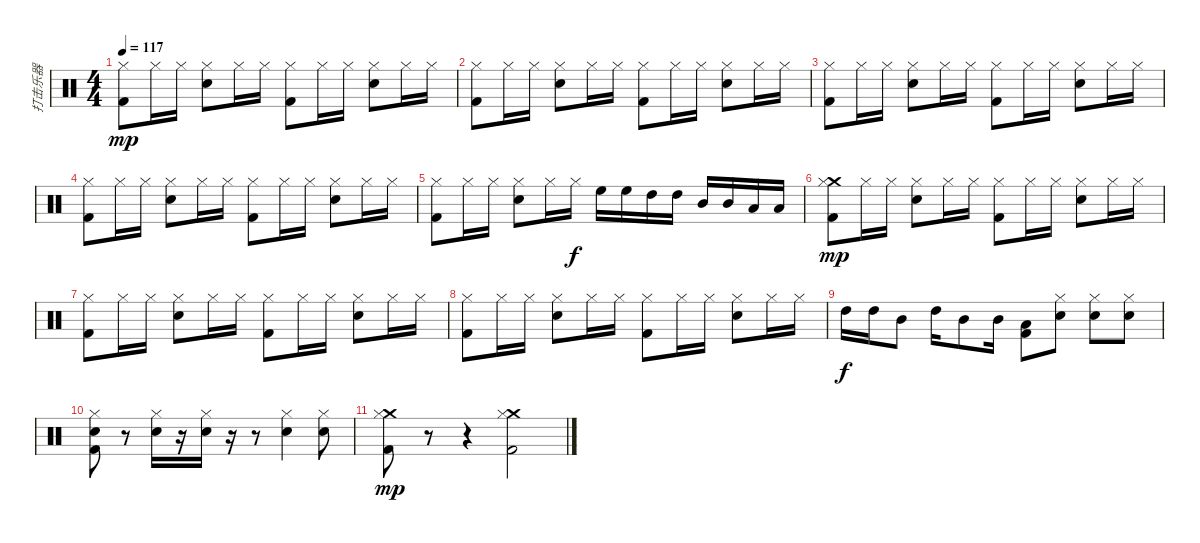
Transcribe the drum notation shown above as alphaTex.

\track ("打击乐器" "打击乐器") {instrument percussion}
\staff {score}
\articulation defaults
\ts (4 4)
\tempo 117
\clef neutral
\ks c
("Hi-Hat (closed)" "Kick (hit) 2").8{dy mp} "Hi-Hat (closed)".16 "Hi-Hat (closed)".16 ("Hi-Hat (closed)" "Snare (hit) 2").8 "Hi-Hat (closed)".16 "Hi-Hat (closed)".16 ("Hi-Hat (closed)" "Kick (hit) 2").8 "Hi-Hat (closed)".16 "Hi-Hat (closed)".16 ("Hi-Hat (closed)" "Snare (hit) 2").8 "Hi-Hat (closed)".16 "Hi-Hat (closed)".16 |
("Hi-Hat (closed)" "Kick (hit) 2").8 "Hi-Hat (closed)".16 "Hi-Hat (closed)".16 ("Hi-Hat (closed)" "Snare (hit) 2").8 "Hi-Hat (closed)".16 "Hi-Hat (closed)".16 ("Hi-Hat (closed)" "Kick (hit) 2").8 "Hi-Hat (closed)".16 "Hi-Hat (closed)".16 ("Hi-Hat (closed)" "Snare (hit) 2").8 "Hi-Hat (closed)".16 "Hi-Hat (closed)".16 |
("Hi-Hat (closed)" "Kick (hit) 2").8 "Hi-Hat (closed)".16 "Hi-Hat (closed)".16 ("Hi-Hat (closed)" "Snare (hit) 2").8 "Hi-Hat (closed)".16 "Hi-Hat (closed)".16 ("Hi-Hat (closed)" "Kick (hit) 2").8 "Hi-Hat (closed)".16 "Hi-Hat (closed)".16 ("Hi-Hat (closed)" "Snare (hit) 2").8 "Hi-Hat (closed)".16 "Hi-Hat (closed)".16 |
("Hi-Hat (closed)" "Kick (hit) 2").8 "Hi-Hat (closed)".16 "Hi-Hat (closed)".16 ("Hi-Hat (closed)" "Snare (hit) 2").8 "Hi-Hat (closed)".16 "Hi-Hat (closed)".16 ("Hi-Hat (closed)" "Kick (hit) 2").8 "Hi-Hat (closed)".16 "Hi-Hat (closed)".16 ("Hi-Hat (closed)" "Snare (hit) 2").8 "Hi-Hat (closed)".16 "Hi-Hat (closed)".16 |
("Hi-Hat (closed)" "Kick (hit) 2").8 "Hi-Hat (closed)".16 "Hi-Hat (closed)".16 ("Hi-Hat (closed)" "Snare (hit) 2").8 "Hi-Hat (closed)".16 "Hi-Hat (closed)".16{dy f} "High Floor Tom (hit)".16 "High Floor Tom (hit)".16 "High Tom (hit)".16 "High Tom (hit)".16 "Mid Tom (hit)".16 "Mid Tom (hit)".16 "Low Tom (hit)".16 "Low Tom (hit)".16 |
("Crash medium (hit)" "Hi-Hat (closed)" "Kick (hit) 2").8{dy mp} "Hi-Hat (closed)".16 "Hi-Hat (closed)".16 ("Hi-Hat (closed)" "Snare (hit) 2").8 "Hi-Hat (closed)".16 "Hi-Hat (closed)".16 ("Hi-Hat (closed)" "Kick (hit) 2").8 "Hi-Hat (closed)".16 "Hi-Hat (closed)".16 ("Hi-Hat (closed)" "Snare (hit) 2").8 "Hi-Hat (closed)".16 "Hi-Hat (closed)".16 |
("Hi-Hat (closed)" "Kick (hit) 2").8 "Hi-Hat (closed)".16 "Hi-Hat (closed)".16 ("Hi-Hat (closed)" "Snare (hit) 2").8 "Hi-Hat (closed)".16 "Hi-Hat (closed)".16 ("Hi-Hat (closed)" "Kick (hit) 2").8 "Hi-Hat (closed)".16 "Hi-Hat (closed)".16 ("Hi-Hat (closed)" "Snare (hit) 2").8 "Hi-Hat (closed)".16 "Hi-Hat (closed)".16 |
("Hi-Hat (closed)" "Kick (hit) 2").8 "Hi-Hat (closed)".16 "Hi-Hat (closed)".16 ("Hi-Hat (closed)" "Snare (hit) 2").8 "Hi-Hat (closed)".16 "Hi-Hat (closed)".16 ("Hi-Hat (closed)" "Kick (hit) 2").8 "Hi-Hat (closed)".16 "Hi-Hat (closed)".16 ("Hi-Hat (closed)" "Snare (hit) 2").8 "Hi-Hat (closed)".16 "Hi-Hat (closed)".16 |
"High Tom (hit)".16{dy f} "High Tom (hit)".16 "Mid Tom (hit)".8 "High Tom (hit)".16 "Mid Tom (hit)".8 "Mid Tom (hit)".16 ("Low Tom (hit)" "Kick (hit) 2").8 ("Hi-Hat (closed)" "Snare (hit) 2").8 ("Hi-Hat (closed)" "Snare (hit) 2").8 ("Hi-Hat (closed)" "Snare (hit) 2").8 |
("Hi-Hat (closed)" "Snare (hit) 2" "Kick (hit) 2").8 r.8 ("Hi-Hat (closed)" "Snare (hit) 2").16 r.16 ("Hi-Hat (closed)" "Snare (hit) 2").16 r.16 r.8 ("Hi-Hat (closed)" "Snare (hit) 2").4 ("Hi-Hat (closed)" "Snare (hit) 2").8 |
("Crash medium (hit)" "Hi-Hat (closed)" "Kick (hit) 2").8{dy mp} r.8 r.4 ("Crash medium (hit)" "Hi-Hat (closed)" "Kick (hit) 2").2
